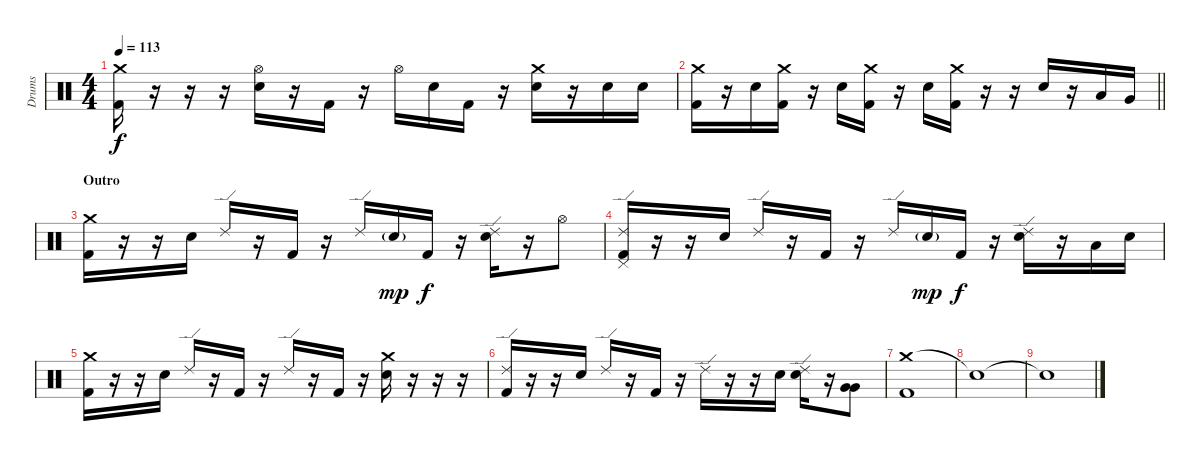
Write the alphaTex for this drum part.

\track ("Drums" "Drums") {instrument percussion}
\staff {score}
\articulation defaults
\ts (4 4)
\tempo 113
\clef neutral
\ks c
("Crash medium (hit)" "Kick (hit) 2").16{dy f} r.16 r.16 r.16 ("Hi-Hat (open)" "Electric Snare (hit)").16 r.16 "Kick (hit) 2".16 r.16 "Hi-Hat (open)".16 "Electric Snare (hit)".16 "Kick (hit) 2".16 r.16 ("Crash medium (hit)" "Electric Snare (hit)").16 r.16 "Electric Snare (hit)".16 "Electric Snare (hit)".16 |
\barLineRight lightlight
("Crash medium (hit)" "Kick (hit) 2").16 r.16 "Electric Snare (hit)".16 ("Crash medium (hit)" "Kick (hit) 2").16 r.16 "Electric Snare (hit)".16 ("Crash medium (hit)" "Kick (hit) 2").16 r.16 "Electric Snare (hit)".16 ("Crash medium (hit)" "Kick (hit) 2").16 r.16 r.16 "Electric Snare (hit)".16 r.16 "Low Tom (hit)".16 "Very Low Tom (hit)".16 |
\section ("" "Outro")
("Crash medium (hit)" "Kick (hit) 2").16 r.16 r.16 "Electric Snare (hit)".16 "Ride (edge) 2".16 r.16 "Kick (hit) 2".16 r.16 "Ride (edge) 2".16 "Electric Snare (hit)"{g}.16{dy mp} "Kick (hit) 2".16{dy f} r.16 ("Ride (edge) 2" "Electric Snare (hit)").16 r.16 "Hi-Hat (open)".8 |
("Pedal Hi-Hat (hit)" "Ride (edge) 2" "Kick (hit) 2").16 r.16 r.16 "Electric Snare (hit)".16 "Ride (edge) 2".16 r.16 "Kick (hit) 2".16 r.16 "Ride (edge) 2".16 "Electric Snare (hit)"{g}.16{dy mp} "Kick (hit) 2".16{dy f} r.16 ("Ride (edge) 2" "Electric Snare (hit)").16 r.16 "Low Tom (hit)".16 "Electric Snare (hit)".16 |
("Crash medium (hit)" "Kick (hit) 2").16 r.16 r.16 "Electric Snare (hit)".16 "Ride (edge) 2".16 r.16 "Kick (hit) 2".16 r.16 "Ride (edge) 2".16 r.16 "Kick (hit) 2".16 r.16 ("Crash medium (hit)" "Electric Snare (hit)").16 r.16 r.16 r.16 |
("Ride (edge) 2" "Kick (hit) 2").16 r.16 r.16 "Electric Snare (hit)".16 "Ride (edge) 2".16 r.16 "Kick (hit) 2".16 r.16 "Ride (edge) 2".16 r.16 r.16 "Electric Snare (hit)".16 ("Ride (edge) 2" "Electric Snare (hit)").16 r.16 ("Very Low Tom (hit)" "Very Low Tom (hit)").8 |
("Crash medium (hit)" "Kick (hit) 2").1 |
"Snare (hit)"{t}.1 |
"Snare (hit)"{t}.1
